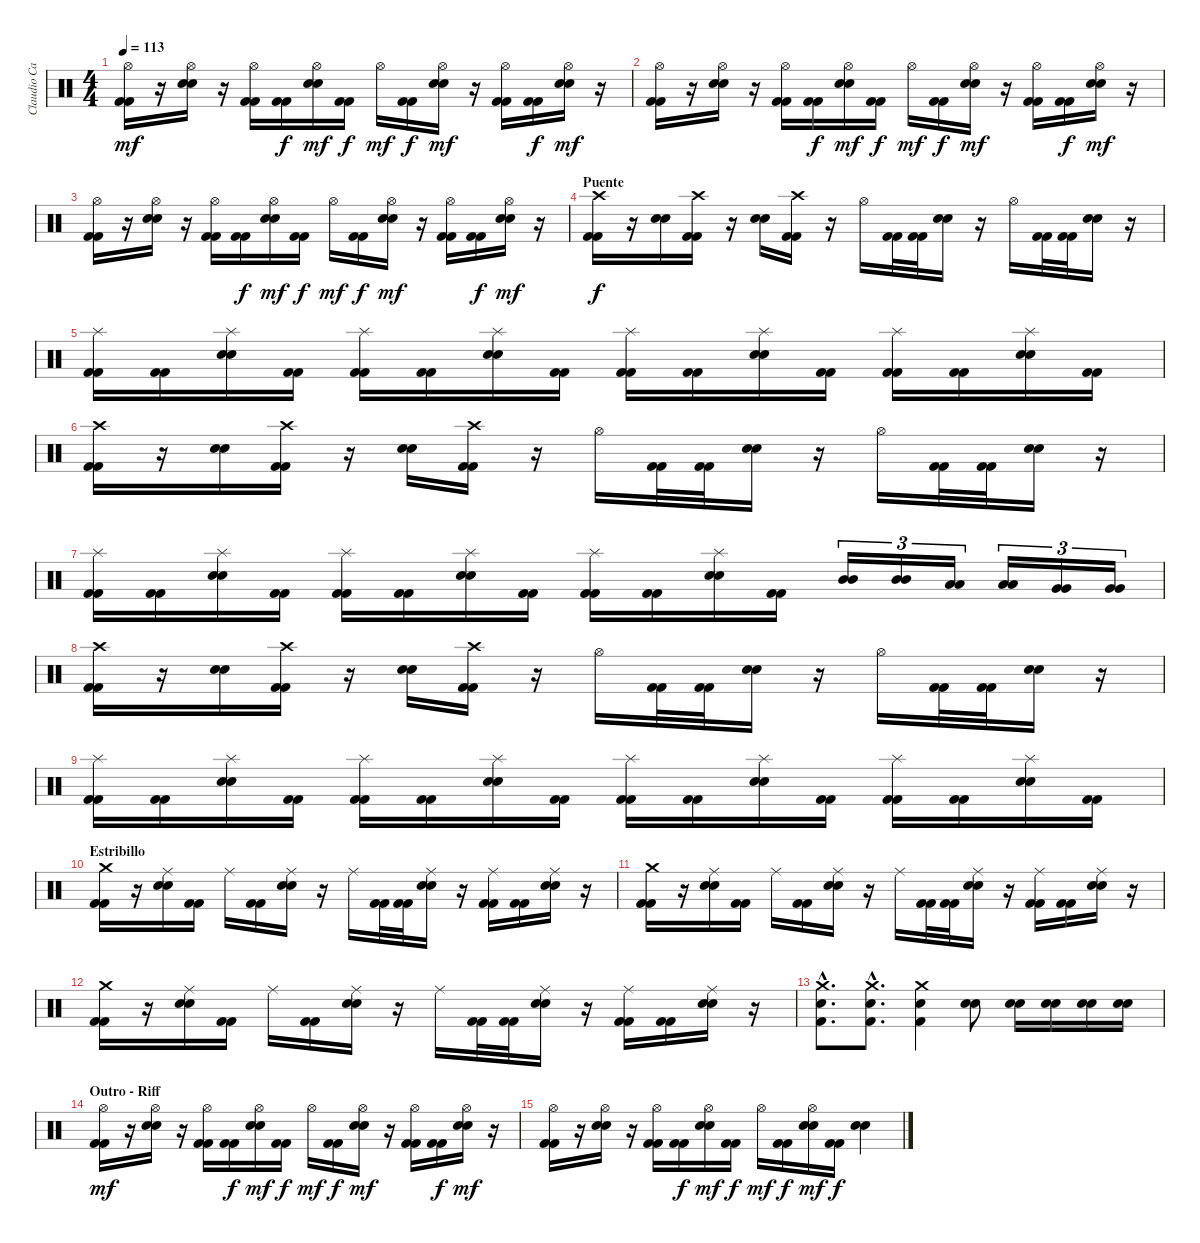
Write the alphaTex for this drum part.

\track ("Claudio Cardaci (bateria)" "Claudio Ca") {instrument percussion}
\staff {score}
\articulation defaults
\ts (4 4)
\tempo 113
\clef neutral
\ks c
("Hi-Hat (open)" "Kick (hit) 2" "Kick (hit) 2").16{dy mf} r.16 ("Hi-Hat (open)" "Snare (hit) 2" "Snare (hit) 2").16 r.16 ("Hi-Hat (open)" "Kick (hit) 2" "Kick (hit) 2").16 ("Kick (hit) 2" "Kick (hit) 2").16{dy f} ("Hi-Hat (open)" "Snare (hit) 2" "Snare (hit) 2").16{dy mf} ("Kick (hit) 2" "Kick (hit) 2").16{dy f} "Hi-Hat (open)".16{dy mf} ("Kick (hit) 2" "Kick (hit) 2").16{dy f} ("Hi-Hat (open)" "Snare (hit) 2" "Snare (hit) 2").16{dy mf} r.16 ("Hi-Hat (open)" "Kick (hit) 2" "Kick (hit) 2").16 ("Kick (hit) 2" "Kick (hit) 2").16{dy f} ("Hi-Hat (open)" "Snare (hit) 2" "Snare (hit) 2").16{dy mf} r.16 |
("Hi-Hat (open)" "Kick (hit) 2" "Kick (hit) 2").16 r.16 ("Hi-Hat (open)" "Snare (hit) 2" "Snare (hit) 2").16 r.16 ("Hi-Hat (open)" "Kick (hit) 2" "Kick (hit) 2").16 ("Kick (hit) 2" "Kick (hit) 2").16{dy f} ("Hi-Hat (open)" "Snare (hit) 2" "Snare (hit) 2").16{dy mf} ("Kick (hit) 2" "Kick (hit) 2").16{dy f} "Hi-Hat (open)".16{dy mf} ("Kick (hit) 2" "Kick (hit) 2").16{dy f} ("Hi-Hat (open)" "Snare (hit) 2" "Snare (hit) 2").16{dy mf} r.16 ("Hi-Hat (open)" "Kick (hit) 2" "Kick (hit) 2").16 ("Kick (hit) 2" "Kick (hit) 2").16{dy f} ("Hi-Hat (open)" "Snare (hit) 2" "Snare (hit) 2").16{dy mf} r.16 |
("Hi-Hat (open)" "Kick (hit) 2" "Kick (hit) 2").16 r.16 ("Hi-Hat (open)" "Snare (hit) 2" "Snare (hit) 2").16 r.16 ("Hi-Hat (open)" "Kick (hit) 2" "Kick (hit) 2").16 ("Kick (hit) 2" "Kick (hit) 2").16{dy f} ("Hi-Hat (open)" "Snare (hit) 2" "Snare (hit) 2").16{dy mf} ("Kick (hit) 2" "Kick (hit) 2").16{dy f} "Hi-Hat (open)".16{dy mf} ("Kick (hit) 2" "Kick (hit) 2").16{dy f} ("Hi-Hat (open)" "Snare (hit) 2" "Snare (hit) 2").16{dy mf} r.16 ("Hi-Hat (open)" "Kick (hit) 2" "Kick (hit) 2").16 ("Kick (hit) 2" "Kick (hit) 2").16{dy f} ("Hi-Hat (open)" "Snare (hit) 2" "Snare (hit) 2").16{dy mf} r.16 |
\section ("" "Puente")
("Crash high (hit)" "Kick (hit) 2" "Kick (hit) 2").16{dy f} r.16 ("Snare (hit) 2" "Snare (hit) 2").16 ("Crash high (hit)" "Kick (hit) 2" "Kick (hit) 2").16 r.16 ("Snare (hit) 2" "Snare (hit) 2").16 ("Crash high (hit)" "Kick (hit) 2" "Kick (hit) 2").16 r.16 "Hi-Hat (open)".16 ("Kick (hit) 2" "Kick (hit) 2").32 ("Kick (hit) 2" "Kick (hit) 2").32 ("Snare (hit) 2" "Snare (hit) 2").16 r.16 "Hi-Hat (open)".16 ("Kick (hit) 2" "Kick (hit) 2").32 ("Kick (hit) 2" "Kick (hit) 2").32 ("Snare (hit) 2" "Snare (hit) 2").16 r.16 |
("Splash (hit)" "Kick (hit) 2" "Kick (hit) 2").16 ("Kick (hit) 2" "Kick (hit) 2").16 ("Splash (hit)" "Snare (hit) 2" "Snare (hit) 2").16 ("Kick (hit) 2" "Kick (hit) 2").16 ("Splash (hit)" "Kick (hit) 2" "Kick (hit) 2").16 ("Kick (hit) 2" "Kick (hit) 2").16 ("Splash (hit)" "Snare (hit) 2" "Snare (hit) 2").16 ("Kick (hit) 2" "Kick (hit) 2").16 ("Splash (hit)" "Kick (hit) 2" "Kick (hit) 2").16 ("Kick (hit) 2" "Kick (hit) 2").16 ("Splash (hit)" "Snare (hit) 2" "Snare (hit) 2").16 ("Kick (hit) 2" "Kick (hit) 2").16 ("Splash (hit)" "Kick (hit) 2" "Kick (hit) 2").16 ("Kick (hit) 2" "Kick (hit) 2").16 ("Splash (hit)" "Snare (hit) 2" "Snare (hit) 2").16 ("Kick (hit) 2" "Kick (hit) 2").16 |
("Crash high (hit)" "Kick (hit) 2" "Kick (hit) 2").16 r.16 ("Snare (hit) 2" "Snare (hit) 2").16 ("Crash high (hit)" "Kick (hit) 2" "Kick (hit) 2").16 r.16 ("Snare (hit) 2" "Snare (hit) 2").16 ("Crash high (hit)" "Kick (hit) 2" "Kick (hit) 2").16 r.16 "Hi-Hat (open)".16 ("Kick (hit) 2" "Kick (hit) 2").32 ("Kick (hit) 2" "Kick (hit) 2").32 ("Snare (hit) 2" "Snare (hit) 2").16 r.16 "Hi-Hat (open)".16 ("Kick (hit) 2" "Kick (hit) 2").32 ("Kick (hit) 2" "Kick (hit) 2").32 ("Snare (hit) 2" "Snare (hit) 2").16 r.16 |
("Splash (hit)" "Kick (hit) 2" "Kick (hit) 2").16 ("Kick (hit) 2" "Kick (hit) 2").16 ("Splash (hit)" "Snare (hit) 2" "Snare (hit) 2").16 ("Kick (hit) 2" "Kick (hit) 2").16 ("Splash (hit)" "Kick (hit) 2" "Kick (hit) 2").16 ("Kick (hit) 2" "Kick (hit) 2").16 ("Splash (hit)" "Snare (hit) 2" "Snare (hit) 2").16 ("Kick (hit) 2" "Kick (hit) 2").16 ("Splash (hit)" "Kick (hit) 2" "Kick (hit) 2").16 ("Kick (hit) 2" "Kick (hit) 2").16 ("Splash (hit)" "Snare (hit) 2" "Snare (hit) 2").16 ("Kick (hit) 2" "Kick (hit) 2").16 ("Mid Tom (hit)" "Mid Tom (hit)").16{tu (3 2)} ("Mid Tom (hit)" "Mid Tom (hit)").16{tu (3 2)} ("Low Tom (hit)" "Low Tom (hit)").16{tu (3 2)} ("Low Tom (hit)" "Low Tom (hit)").16{tu (3 2)} ("Very Low Tom (hit)" "Very Low Tom (hit)").16{tu (3 2)} ("Very Low Tom (hit)" "Very Low Tom (hit)").16{tu (3 2)} |
("Crash high (hit)" "Kick (hit) 2" "Kick (hit) 2").16 r.16 ("Snare (hit) 2" "Snare (hit) 2").16 ("Crash high (hit)" "Kick (hit) 2" "Kick (hit) 2").16 r.16 ("Snare (hit) 2" "Snare (hit) 2").16 ("Crash high (hit)" "Kick (hit) 2" "Kick (hit) 2").16 r.16 "Hi-Hat (open)".16 ("Kick (hit) 2" "Kick (hit) 2").32 ("Kick (hit) 2" "Kick (hit) 2").32 ("Snare (hit) 2" "Snare (hit) 2").16 r.16 "Hi-Hat (open)".16 ("Kick (hit) 2" "Kick (hit) 2").32 ("Kick (hit) 2" "Kick (hit) 2").32 ("Snare (hit) 2" "Snare (hit) 2").16 r.16 |
("Splash (hit)" "Kick (hit) 2" "Kick (hit) 2").16 ("Kick (hit) 2" "Kick (hit) 2").16 ("Splash (hit)" "Snare (hit) 2" "Snare (hit) 2").16 ("Kick (hit) 2" "Kick (hit) 2").16 ("Splash (hit)" "Kick (hit) 2" "Kick (hit) 2").16 ("Kick (hit) 2" "Kick (hit) 2").16 ("Splash (hit)" "Snare (hit) 2" "Snare (hit) 2").16 ("Kick (hit) 2" "Kick (hit) 2").16 ("Splash (hit)" "Kick (hit) 2" "Kick (hit) 2").16 ("Kick (hit) 2" "Kick (hit) 2").16 ("Splash (hit)" "Snare (hit) 2" "Snare (hit) 2").16 ("Kick (hit) 2" "Kick (hit) 2").16 ("Splash (hit)" "Kick (hit) 2" "Kick (hit) 2").16 ("Kick (hit) 2" "Kick (hit) 2").16 ("Splash (hit)" "Snare (hit) 2" "Snare (hit) 2").16 ("Kick (hit) 2" "Kick (hit) 2").16 |
\section ("" "Estribillo")
("Crash medium (hit)" "Kick (hit) 2" "Kick (hit) 2").16 r.16 ("Ride (middle)" "Snare (hit) 2" "Snare (hit) 2").16 ("Kick (hit) 2" "Kick (hit) 2").16 "Ride (middle)".16 ("Kick (hit) 2" "Kick (hit) 2").16 ("Ride (middle)" "Snare (hit) 2" "Snare (hit) 2").16 r.16 "Ride (middle)".16 ("Kick (hit) 2" "Kick (hit) 2").32 ("Kick (hit) 2" "Kick (hit) 2").32 ("Ride (middle)" "Snare (hit) 2" "Snare (hit) 2").16 r.16 ("Ride (middle)" "Kick (hit) 2" "Kick (hit) 2").16 ("Kick (hit) 2" "Kick (hit) 2").16 ("Ride (middle)" "Snare (hit) 2" "Snare (hit) 2").16 r.16 |
("Crash medium (hit)" "Kick (hit) 2" "Kick (hit) 2").16 r.16 ("Ride (middle)" "Snare (hit) 2" "Snare (hit) 2").16 ("Kick (hit) 2" "Kick (hit) 2").16 "Ride (middle)".16 ("Kick (hit) 2" "Kick (hit) 2").16 ("Ride (middle)" "Snare (hit) 2" "Snare (hit) 2").16 r.16 "Ride (middle)".16 ("Kick (hit) 2" "Kick (hit) 2").32 ("Kick (hit) 2" "Kick (hit) 2").32 ("Ride (middle)" "Snare (hit) 2" "Snare (hit) 2").16 r.16 ("Ride (middle)" "Kick (hit) 2" "Kick (hit) 2").16 ("Kick (hit) 2" "Kick (hit) 2").16 ("Ride (middle)" "Snare (hit) 2" "Snare (hit) 2").16 r.16 |
("Crash medium (hit)" "Kick (hit) 2" "Kick (hit) 2").16 r.16 ("Ride (middle)" "Snare (hit) 2" "Snare (hit) 2").16 ("Kick (hit) 2" "Kick (hit) 2").16 "Ride (middle)".16 ("Kick (hit) 2" "Kick (hit) 2").16 ("Ride (middle)" "Snare (hit) 2" "Snare (hit) 2").16 r.16 "Ride (middle)".16 ("Kick (hit) 2" "Kick (hit) 2").32 ("Kick (hit) 2" "Kick (hit) 2").32 ("Ride (middle)" "Snare (hit) 2" "Snare (hit) 2").16 r.16 ("Ride (middle)" "Kick (hit) 2" "Kick (hit) 2").16 ("Kick (hit) 2" "Kick (hit) 2").16 ("Ride (middle)" "Snare (hit) 2" "Snare (hit) 2").16 r.16 |
("Crash medium (hit)"{hac} "Snare (hit) 2"{hac} "Kick (hit) 2"{hac}).8{d} ("Crash medium (hit)"{hac} "Snare (hit) 2"{hac} "Kick (hit) 2"{hac}).8{d} ("Crash medium (hit)" "Snare (hit) 2" "Kick (hit) 2").4 ("Electric Snare (hit)" "Electric Snare (hit)").8 ("Snare (hit) 2" "Snare (hit) 2").16 ("Snare (hit) 2" "Snare (hit) 2").16 ("Snare (hit) 2" "Snare (hit) 2").16 ("Snare (hit) 2" "Snare (hit) 2").16 |
\section ("" "Outro - Riff")
("Hi-Hat (open)" "Kick (hit) 2" "Kick (hit) 2").16{dy mf} r.16 ("Hi-Hat (open)" "Snare (hit) 2" "Snare (hit) 2").16 r.16 ("Hi-Hat (open)" "Kick (hit) 2" "Kick (hit) 2").16 ("Kick (hit) 2" "Kick (hit) 2").16{dy f} ("Hi-Hat (open)" "Snare (hit) 2" "Snare (hit) 2").16{dy mf} ("Kick (hit) 2" "Kick (hit) 2").16{dy f} "Hi-Hat (open)".16{dy mf} ("Kick (hit) 2" "Kick (hit) 2").16{dy f} ("Hi-Hat (open)" "Snare (hit) 2" "Snare (hit) 2").16{dy mf} r.16 ("Hi-Hat (open)" "Kick (hit) 2" "Kick (hit) 2").16 ("Kick (hit) 2" "Kick (hit) 2").16{dy f} ("Hi-Hat (open)" "Snare (hit) 2" "Snare (hit) 2").16{dy mf} r.16 |
("Hi-Hat (open)" "Kick (hit) 2" "Kick (hit) 2").16 r.16 ("Hi-Hat (open)" "Snare (hit) 2" "Snare (hit) 2").16 r.16 ("Hi-Hat (open)" "Kick (hit) 2" "Kick (hit) 2").16 ("Kick (hit) 2" "Kick (hit) 2").16{dy f} ("Hi-Hat (open)" "Snare (hit) 2" "Snare (hit) 2").16{dy mf} ("Kick (hit) 2" "Kick (hit) 2").16{dy f} "Hi-Hat (open)".16{dy mf} ("Kick (hit) 2" "Kick (hit) 2").16{dy f} ("Hi-Hat (open)" "Snare (hit) 2" "Snare (hit) 2").16{dy mf} ("Kick (hit) 2" "Kick (hit) 2").16{dy f} ("Snare (hit) 2" "Snare (hit) 2").4
